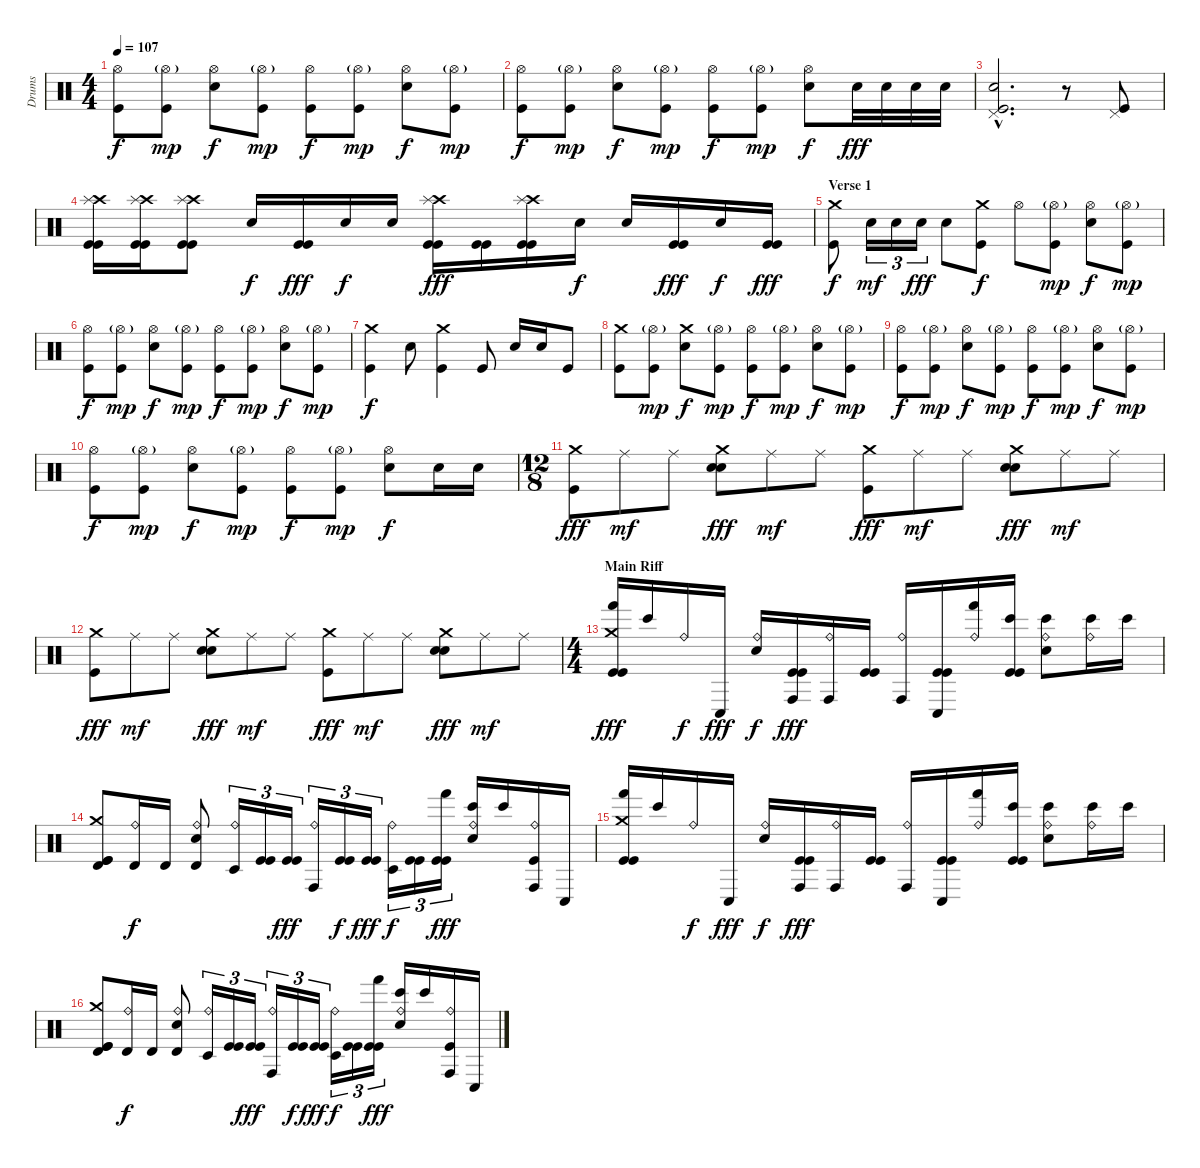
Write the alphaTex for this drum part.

\track ("Drums" "Drums") {instrument percussion}
\staff {score}
\articulation defaults
\ts (4 4)
\tempo 107
\clef neutral
\ks c
("Hi-Hat (open)" "Kick (hit)").8{dy f} ("Hi-Hat (open)"{g} "Kick (hit)").8{dy mp} ("Hi-Hat (open)" "Electric Snare (hit)").8{dy f} ("Hi-Hat (open)"{g} "Kick (hit)").8{dy mp} ("Hi-Hat (open)" "Kick (hit)").8{dy f} ("Hi-Hat (open)"{g} "Kick (hit)").8{dy mp} ("Hi-Hat (open)" "Electric Snare (hit)").8{dy f} ("Hi-Hat (open)"{g} "Kick (hit)").8{dy mp} |
("Hi-Hat (open)" "Kick (hit)").8{dy f} ("Hi-Hat (open)"{g} "Kick (hit)").8{dy mp} ("Hi-Hat (open)" "Electric Snare (hit)").8{dy f} ("Hi-Hat (open)"{g} "Kick (hit)").8{dy mp} ("Hi-Hat (open)" "Kick (hit)").8{dy f} ("Hi-Hat (open)"{g} "Kick (hit)").8{dy mp} ("Hi-Hat (open)" "Electric Snare (hit)").8{dy f} "Electric Snare (hit)".32{dy fff} "Electric Snare (hit)".32 "Electric Snare (hit)".32 "Electric Snare (hit)".32 |
("Pedal Hi-Hat (hit)"{hac} "Electric Snare (hit)"{hac} "Kick (hit)"{hac}).2{d} r.8 ("Pedal Hi-Hat (hit)" "Kick (hit)").8 |
("Crash high (hit)" "Splash (hit)" "Kick (hit)" "Kick (hit)").16 ("Crash high (hit)" "Splash (hit)" "Kick (hit)" "Kick (hit)").16 ("Crash high (hit)" "Splash (hit)" "Kick (hit)" "Kick (hit)").8 "Electric Snare (hit)".16{dy f} ("Kick (hit)" "Kick (hit)").16{dy fff} "Electric Snare (hit)".16{dy f} "Electric Snare (hit)".16 ("Crash high (hit)" "Splash (hit)" "Kick (hit)" "Kick (hit)").16{dy fff} ("Kick (hit)" "Kick (hit)").16 ("Crash high (hit)" "Splash (hit)" "Kick (hit)" "Kick (hit)").16 "Electric Snare (hit)".16{dy f} "Electric Snare (hit)".16 ("Kick (hit)" "Kick (hit)").16{dy fff} "Electric Snare (hit)".16{dy f} ("Kick (hit)" "Kick (hit)").16{dy fff} |
\section ("" "Verse 1")
("Crash medium (hit)" "Kick (hit)").8{dy f} "Electric Snare (hit)".16{tu (3 2) dy mf} "Electric Snare (hit)".16{tu (3 2)} "Electric Snare (hit)".16{tu (3 2) dy fff} "Electric Snare (hit)".8 ("Crash medium (hit)" "Kick (hit)").8{dy f} "Hi-Hat (open)".8 ("Hi-Hat (open)"{g} "Kick (hit)").8{dy mp} ("Hi-Hat (open)" "Electric Snare (hit)").8{dy f} ("Hi-Hat (open)"{g} "Kick (hit)").8{dy mp} |
("Hi-Hat (open)" "Kick (hit)").8{dy f} ("Hi-Hat (open)"{g} "Kick (hit)").8{dy mp} ("Hi-Hat (open)" "Electric Snare (hit)").8{dy f} ("Hi-Hat (open)"{g} "Kick (hit)").8{dy mp} ("Hi-Hat (open)" "Kick (hit)").8{dy f} ("Hi-Hat (open)"{g} "Kick (hit)").8{dy mp} ("Hi-Hat (open)" "Electric Snare (hit)").8{dy f} ("Hi-Hat (open)"{g} "Kick (hit)").8{dy mp} |
("Crash medium (hit)" "Kick (hit)").4{dy f} "Electric Snare (hit)".8 ("Crash medium (hit)" "Kick (hit)").4 "Kick (hit)".8 "Electric Snare (hit)".16 "Electric Snare (hit)".16 "Kick (hit)".8 |
("Crash medium (hit)" "Kick (hit)").8 ("Hi-Hat (open)"{g} "Kick (hit)").8{dy mp} ("Crash medium (hit)" "Electric Snare (hit)").8{dy f} ("Hi-Hat (open)"{g} "Kick (hit)").8{dy mp} ("Hi-Hat (open)" "Kick (hit)").8{dy f} ("Hi-Hat (open)"{g} "Kick (hit)").8{dy mp} ("Hi-Hat (open)" "Electric Snare (hit)").8{dy f} ("Hi-Hat (open)"{g} "Kick (hit)").8{dy mp} |
("Hi-Hat (open)" "Kick (hit)").8{dy f} ("Hi-Hat (open)"{g} "Kick (hit)").8{dy mp} ("Hi-Hat (open)" "Electric Snare (hit)").8{dy f} ("Hi-Hat (open)"{g} "Kick (hit)").8{dy mp} ("Hi-Hat (open)" "Kick (hit)").8{dy f} ("Hi-Hat (open)"{g} "Kick (hit)").8{dy mp} ("Hi-Hat (open)" "Electric Snare (hit)").8{dy f} ("Hi-Hat (open)"{g} "Kick (hit)").8{dy mp} |
("Hi-Hat (open)" "Kick (hit)").8{dy f} ("Hi-Hat (open)"{g} "Kick (hit)").8{dy mp} ("Hi-Hat (open)" "Electric Snare (hit)").8{dy f} ("Hi-Hat (open)"{g} "Kick (hit)").8{dy mp} ("Hi-Hat (open)" "Kick (hit)").8{dy f} ("Hi-Hat (open)"{g} "Kick (hit)").8{dy mp} ("Hi-Hat (open)" "Electric Snare (hit)").8{dy f} "Electric Snare (hit)".16 "Electric Snare (hit)".16 |
\ts (12 8)
("Crash medium (hit)" "Kick (hit)").8{dy fff volume 16} "Ride (middle)".8{dy mf} "Ride (middle)".8 ("Crash medium (hit)" "Snare (hit) 2" "Electric Snare (hit)").8{dy fff} "Ride (middle)".8{dy mf} "Ride (middle)".8 ("Crash medium (hit)" "Kick (hit)").8{dy fff} "Ride (middle)".8{dy mf} "Ride (middle)".8 ("Crash medium (hit)" "Snare (hit) 2" "Electric Snare (hit)").8{dy fff} "Ride (middle)".8{dy mf} "Ride (middle)".8 |
("Crash medium (hit)" "Kick (hit)").8{dy fff} "Ride (middle)".8{dy mf} "Ride (middle)".8 ("Crash medium (hit)" "Snare (hit) 2" "Electric Snare (hit)").8{dy fff} "Ride (middle)".8{dy mf} "Ride (middle)".8 ("Crash medium (hit)" "Kick (hit)").8{dy fff} "Ride (middle)".8{dy mf} "Ride (middle)".8 ("Crash medium (hit)" "Snare (hit) 2" "Electric Snare (hit)").8{dy fff} "Ride (middle)".8{dy mf} "Ride (middle)".8 |
\ts (4 4)
\section ("" "Main Riff")
("Crash medium (hit)" "Hand (hit)" "Kick (hit)" "Kick (hit)").16{dy fff} "Bongo High (hit)".16 "Ride (bell)".16{dy f} "Conga low (hit)".16{dy fff} ("Ride (bell)" "Electric Snare (hit)").16{dy f} ("Conga high (hit)" "Kick (hit)" "Kick (hit)").16{dy fff} ("Ride (bell)" "Conga high (hit)").16 ("Kick (hit)" "Kick (hit)").16 ("Ride (bell)" "Conga high (hit)").16 ("Conga low (hit)" "Kick (hit)" "Kick (hit)").16 ("Ride (bell)" "Hand (hit)").16 ("Bongo High (hit)" "Kick (hit)" "Kick (hit)").16 ("Ride (bell)" "Bongo High (hit)" "Electric Snare (hit)").8 ("Ride (bell)" "Bongo High (hit)").16 "Bongo High (hit)".16 |
("Crash medium (hit)" "Timbale high (hit)" "Kick (hit)" "Kick (hit)").8 ("Ride (bell)" "Timbale high (hit)").16{dy f} "Timbale high (hit)".16 ("Ride (bell)" "Timbale high (hit)" "Electric Snare (hit)").8 ("Ride (bell)" "Timbale low (hit)").16{tu (3 2)} ("Kick (hit)" "Kick (hit)").16{tu (3 2)} ("Kick (hit)" "Kick (hit)").16{tu (3 2) dy fff} ("Ride (bell)" "Conga high (hit)").16{tu (3 2)} ("Kick (hit)" "Kick (hit)").16{tu (3 2) dy f} ("Kick (hit)" "Kick (hit)").16{tu (3 2) dy fff} ("Ride (bell)" "Timbale low (hit)").16{tu (3 2) dy f} ("Kick (hit)" "Kick (hit)").16{tu (3 2)} ("Hand (hit)" "Kick (hit)" "Kick (hit)").16{tu (3 2) dy fff} ("Ride (bell)" "Bongo High (hit)" "Electric Snare (hit)").16 "Bongo High (hit)".16 ("Ride (bell)" "Conga high (hit)" "Kick (hit)").16 "Conga low (hit)".16 |
("Crash medium (hit)" "Hand (hit)" "Kick (hit)" "Kick (hit)").16 "Bongo High (hit)".16 "Ride (bell)".16{dy f} "Conga low (hit)".16{dy fff} ("Ride (bell)" "Electric Snare (hit)").16{dy f} ("Conga high (hit)" "Kick (hit)" "Kick (hit)").16{dy fff} ("Ride (bell)" "Conga high (hit)").16 ("Kick (hit)" "Kick (hit)").16 ("Ride (bell)" "Conga high (hit)").16 ("Conga low (hit)" "Kick (hit)" "Kick (hit)").16 ("Ride (bell)" "Hand (hit)").16 ("Bongo High (hit)" "Kick (hit)" "Kick (hit)").16 ("Ride (bell)" "Bongo High (hit)" "Electric Snare (hit)").8 ("Ride (bell)" "Bongo High (hit)").16 "Bongo High (hit)".16 |
("Crash medium (hit)" "Timbale high (hit)" "Kick (hit)" "Kick (hit)").8 ("Ride (bell)" "Timbale high (hit)").16{dy f} "Timbale high (hit)".16 ("Ride (bell)" "Timbale high (hit)" "Electric Snare (hit)").8 ("Ride (bell)" "Timbale low (hit)").16{tu (3 2)} ("Kick (hit)" "Kick (hit)").16{tu (3 2)} ("Kick (hit)" "Kick (hit)").16{tu (3 2) dy fff} ("Ride (bell)" "Conga high (hit)").16{tu (3 2)} ("Kick (hit)" "Kick (hit)").16{tu (3 2) dy f} ("Kick (hit)" "Kick (hit)").16{tu (3 2) dy fff} ("Ride (bell)" "Timbale low (hit)").16{tu (3 2) dy f} ("Kick (hit)" "Kick (hit)").16{tu (3 2)} ("Hand (hit)" "Kick (hit)" "Kick (hit)").16{tu (3 2) dy fff} ("Ride (bell)" "Bongo High (hit)" "Electric Snare (hit)").16 "Bongo High (hit)".16 ("Ride (bell)" "Conga high (hit)" "Kick (hit)").16 "Conga low (hit)".16
